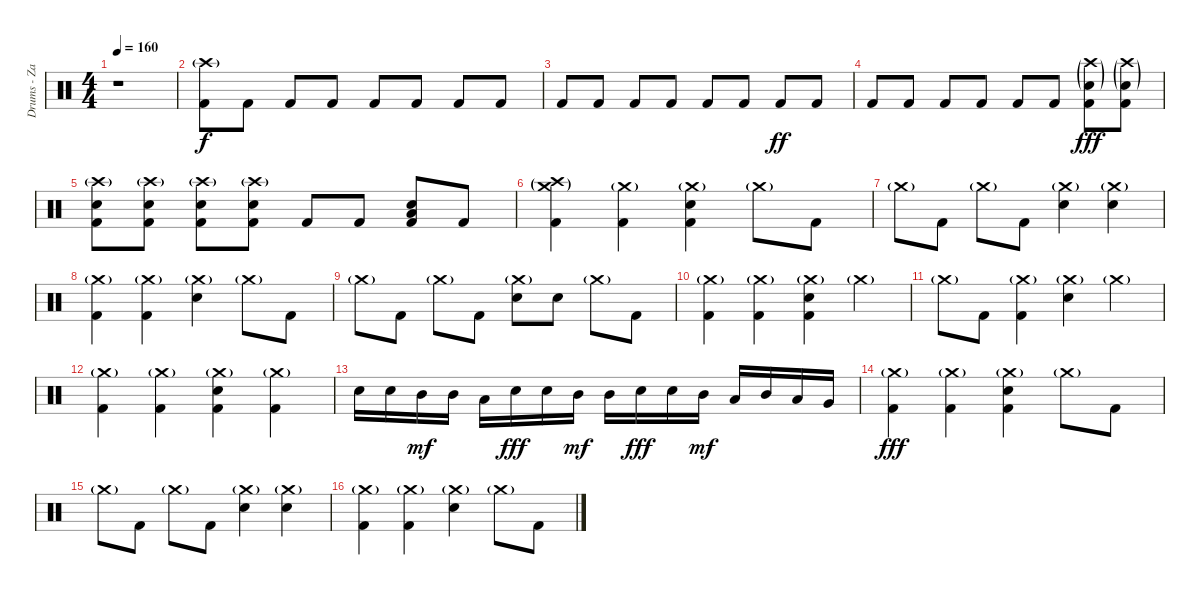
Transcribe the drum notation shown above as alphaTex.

\track ("Drums - Zac Farro" "Drums - Za") {instrument percussion}
\staff {score}
\articulation defaults
\ts (4 4)
\tempo 160
\clef neutral
\ks c
r.1{dy fff} |
("Crash high (hit)"{g} "Kick (hit) 2").8{dy f} "Kick (hit) 2".8 "Kick (hit) 2".8 "Kick (hit) 2".8 "Kick (hit) 2".8 "Kick (hit) 2".8 "Kick (hit) 2".8 "Kick (hit) 2".8 |
"Kick (hit) 2".8 "Kick (hit) 2".8 "Kick (hit) 2".8 "Kick (hit) 2".8 "Kick (hit) 2".8 "Kick (hit) 2".8 "Kick (hit) 2".8{dy ff} "Kick (hit) 2".8 |
"Kick (hit) 2".8 "Kick (hit) 2".8 "Kick (hit) 2".8 "Kick (hit) 2".8 "Kick (hit) 2".8 "Kick (hit) 2".8 ("Crash high (hit)"{g} "Electric Snare (hit)"{g} "Kick (hit) 2").8{dy fff} ("Crash high (hit)"{g} "Electric Snare (hit)"{g} "Kick (hit) 2").8 |
("Crash high (hit)"{g} "Electric Snare (hit)" "Kick (hit) 2").8 ("Crash high (hit)"{g} "Electric Snare (hit)" "Kick (hit) 2").8 ("Crash high (hit)"{g} "Electric Snare (hit)" "Kick (hit) 2").8 ("Crash high (hit)"{g} "Electric Snare (hit)" "Kick (hit) 2").8 "Kick (hit) 2".8 "Kick (hit) 2".8 ("Electric Snare (hit)" "Low Tom (hit)" "Kick (hit) 2").8 "Kick (hit) 2".8 |
("Crash medium (hit)"{g} "Crash high (hit)"{g} "Kick (hit) 2").4 ("Crash medium (hit)"{g} "Kick (hit) 2").4 ("Crash medium (hit)"{g} "Electric Snare (hit)" "Kick (hit) 2").4 "Crash medium (hit)"{g}.8 "Kick (hit) 2".8 |
"Crash medium (hit)"{g}.8 "Kick (hit) 2".8 "Crash medium (hit)"{g}.8 "Kick (hit) 2".8 ("Crash medium (hit)"{g} "Electric Snare (hit)").4 ("Crash medium (hit)"{g} "Electric Snare (hit)").4 |
("Crash medium (hit)"{g} "Kick (hit) 2").4 ("Crash medium (hit)"{g} "Kick (hit) 2").4 ("Crash medium (hit)"{g} "Electric Snare (hit)").4 "Crash medium (hit)"{g}.8 "Kick (hit) 2".8 |
"Crash medium (hit)"{g}.8 "Kick (hit) 2".8 "Crash medium (hit)"{g}.8 "Kick (hit) 2".8 ("Crash medium (hit)"{g} "Electric Snare (hit)").8 "Electric Snare (hit)".8 "Crash medium (hit)"{g}.8 "Kick (hit) 2".8 |
("Crash medium (hit)"{g} "Kick (hit) 2").4 ("Crash medium (hit)"{g} "Kick (hit) 2").4 ("Crash medium (hit)"{g} "Electric Snare (hit)" "Kick (hit) 2").4 "Crash medium (hit)"{g}.4 |
"Crash medium (hit)"{g}.8 "Kick (hit) 2".8 ("Crash medium (hit)"{g} "Kick (hit) 2").4 ("Crash medium (hit)"{g} "Electric Snare (hit)").4 "Crash medium (hit)"{g}.4 |
("Crash medium (hit)"{g} "Kick (hit) 2").4 ("Crash medium (hit)"{g} "Kick (hit) 2").4 ("Crash medium (hit)"{g} "Electric Snare (hit)" "Kick (hit) 2").4 ("Crash medium (hit)"{g} "Kick (hit) 2").4 |
"Electric Snare (hit)".16 "Electric Snare (hit)".16 "Mid Tom (hit)".16{dy mf} "Mid Tom (hit)".16 "Low Tom (hit)".16 "Electric Snare (hit)".16{dy fff} "Electric Snare (hit)".16 "Mid Tom (hit)".16{dy mf} "Mid Tom (hit)".16 "Electric Snare (hit)".16{dy fff} "Electric Snare (hit)".16 "Mid Tom (hit)".16{dy mf} "Low Tom (hit)".16 "Mid Tom (hit)".16 "Low Tom (hit)".16 "Very Low Tom (hit)".16 |
("Crash medium (hit)"{g} "Kick (hit) 2").4{dy fff} ("Crash medium (hit)"{g} "Kick (hit) 2").4 ("Crash medium (hit)"{g} "Electric Snare (hit)" "Kick (hit) 2").4 "Crash medium (hit)"{g}.8 "Kick (hit) 2".8 |
"Crash medium (hit)"{g}.8 "Kick (hit) 2".8 "Crash medium (hit)"{g}.8 "Kick (hit) 2".8 ("Crash medium (hit)"{g} "Electric Snare (hit)").4 ("Crash medium (hit)"{g} "Electric Snare (hit)").4 |
("Crash medium (hit)"{g} "Kick (hit) 2").4 ("Crash medium (hit)"{g} "Kick (hit) 2").4 ("Crash medium (hit)"{g} "Electric Snare (hit)").4 "Crash medium (hit)"{g}.8 "Kick (hit) 2".8
